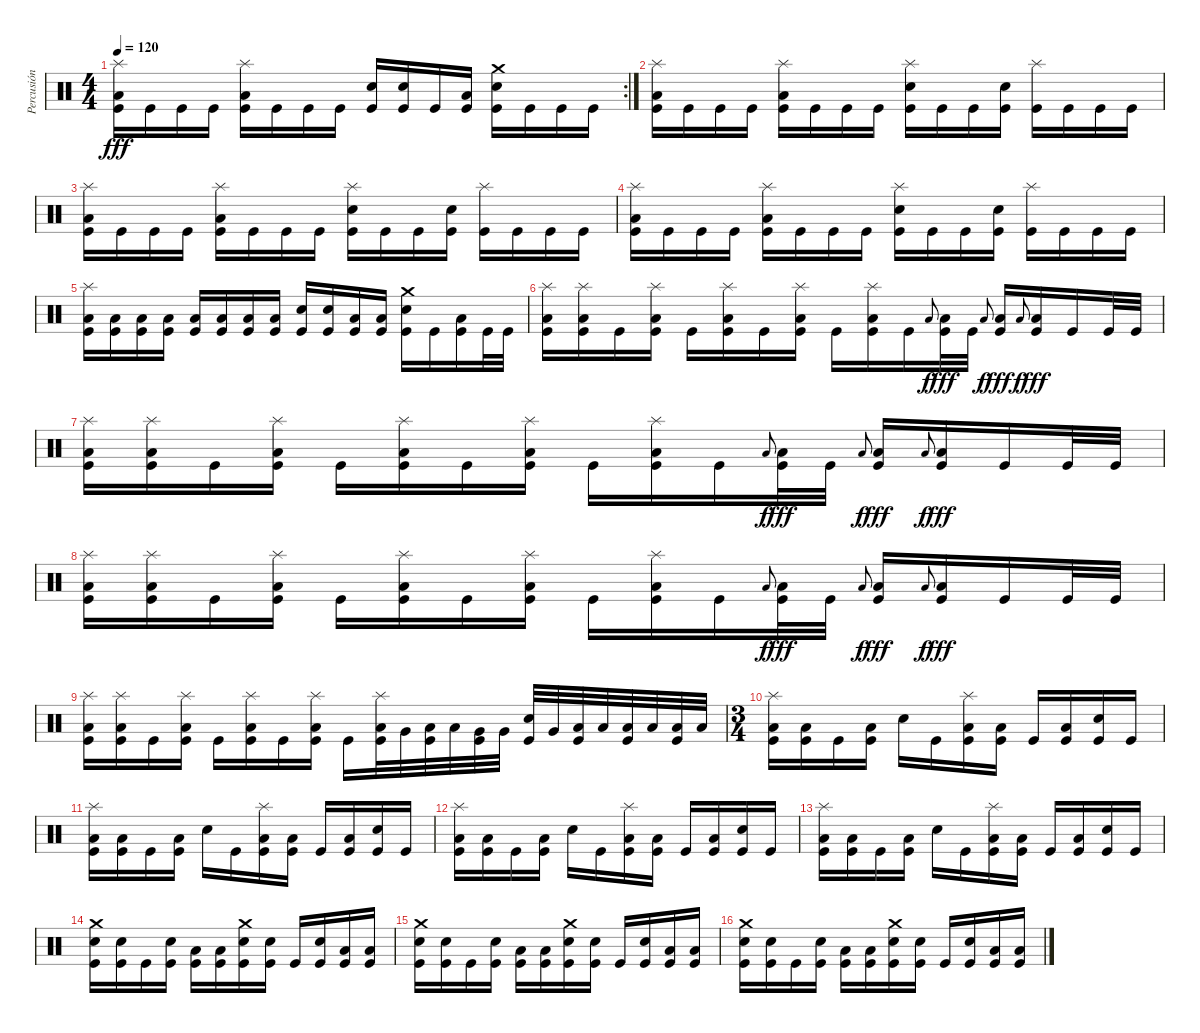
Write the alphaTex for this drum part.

\track ("Percusión" "Percusión") {instrument percussion}
\staff {score}
\articulation defaults
\rc 2
\ts (4 4)
\tempo 120
\clef neutral
\ks c
("Splash (hit)" "Low Floor Tom (hit)" "Kick (hit)").16{dy fff} "Kick (hit)".16 "Kick (hit)".16 "Kick (hit)".16 ("Splash (hit)" "Low Floor Tom (hit)" "Kick (hit)").16 "Kick (hit)".16 "Kick (hit)".16 "Kick (hit)".16 ("Snare (hit) 2" "Kick (hit)").16 ("Snare (hit) 2" "Kick (hit)").16 "Kick (hit)".16 ("Low Floor Tom (hit)" "Kick (hit)").16 ("Crash medium (hit)" "Snare (hit) 2" "Kick (hit)").16 "Kick (hit)".16 "Kick (hit)".16 "Kick (hit)".16 |
("Splash (hit)" "Low Floor Tom (hit)" "Kick (hit)").16 "Kick (hit)".16 "Kick (hit)".16 "Kick (hit)".16 ("Splash (hit)" "Low Floor Tom (hit)" "Kick (hit)").16 "Kick (hit)".16 "Kick (hit)".16 "Kick (hit)".16 ("Splash (hit)" "Snare (hit) 2" "Kick (hit)").16 "Kick (hit)".16 "Kick (hit)".16 ("Snare (hit) 2" "Kick (hit)").16 ("Splash (hit)" "Kick (hit)").16 "Kick (hit)".16 "Kick (hit)".16 "Kick (hit)".16 |
("Splash (hit)" "Low Floor Tom (hit)" "Kick (hit)").16 "Kick (hit)".16 "Kick (hit)".16 "Kick (hit)".16 ("Splash (hit)" "Low Floor Tom (hit)" "Kick (hit)").16 "Kick (hit)".16 "Kick (hit)".16 "Kick (hit)".16 ("Splash (hit)" "Snare (hit) 2" "Kick (hit)").16 "Kick (hit)".16 "Kick (hit)".16 ("Snare (hit) 2" "Kick (hit)").16 ("Splash (hit)" "Kick (hit)").16 "Kick (hit)".16 "Kick (hit)".16 "Kick (hit)".16 |
("Splash (hit)" "Low Floor Tom (hit)" "Kick (hit)").16 "Kick (hit)".16 "Kick (hit)".16 "Kick (hit)".16 ("Splash (hit)" "Low Floor Tom (hit)" "Kick (hit)").16 "Kick (hit)".16 "Kick (hit)".16 "Kick (hit)".16 ("Splash (hit)" "Snare (hit) 2" "Kick (hit)").16 "Kick (hit)".16 "Kick (hit)".16 ("Snare (hit) 2" "Kick (hit)").16 ("Splash (hit)" "Kick (hit)").16 "Kick (hit)".16 "Kick (hit)".16 "Kick (hit)".16 |
("Splash (hit)" "Low Floor Tom (hit)" "Kick (hit)").16 ("Low Floor Tom (hit)" "Kick (hit)").16 ("Low Floor Tom (hit)" "Kick (hit)").16 ("Low Floor Tom (hit)" "Kick (hit)").16 ("Low Floor Tom (hit)" "Kick (hit)").16 ("Low Floor Tom (hit)" "Kick (hit)").16 ("Low Floor Tom (hit)" "Kick (hit)").16 ("Low Floor Tom (hit)" "Kick (hit)").16 ("Snare (hit) 2" "Kick (hit)").16 ("Snare (hit) 2" "Kick (hit)").16 ("Low Floor Tom (hit)" "Kick (hit)").16 ("Low Floor Tom (hit)" "Kick (hit)").16 ("Crash medium (hit)" "Snare (hit) 2" "Kick (hit)").16 "Kick (hit)".16 ("Low Floor Tom (hit)" "Kick (hit)").16 "Kick (hit)".32 "Kick (hit)".32 |
("Splash (hit)" "Low Floor Tom (hit)" "Kick (hit)").16 ("Splash (hit)" "Low Floor Tom (hit)" "Kick (hit)").16 "Kick (hit)".16 ("Splash (hit)" "Low Floor Tom (hit)" "Kick (hit)").16 "Kick (hit)".16 ("Splash (hit)" "Low Floor Tom (hit)" "Kick (hit)").16 "Kick (hit)".16 ("Splash (hit)" "Low Floor Tom (hit)" "Kick (hit)").16 "Kick (hit)".16 ("Splash (hit)" "Low Floor Tom (hit)" "Kick (hit)").16 "Kick (hit)".16 "Low Floor Tom (hit)".8{gr onbeat dy f} ("Low Floor Tom (hit)" "Kick (hit)").32{dy fff} "Kick (hit)".32 "Low Floor Tom (hit)".8{gr onbeat dy f} ("Low Floor Tom (hit)" "Kick (hit)").16{dy fff} "Low Floor Tom (hit)".8{gr onbeat dy f} ("Low Floor Tom (hit)" "Kick (hit)").16{dy fff} "Kick (hit)".16 "Kick (hit)".32 "Kick (hit)".32 |
("Splash (hit)" "Low Floor Tom (hit)" "Kick (hit)").16 ("Splash (hit)" "Low Floor Tom (hit)" "Kick (hit)").16 "Kick (hit)".16 ("Splash (hit)" "Low Floor Tom (hit)" "Kick (hit)").16 "Kick (hit)".16 ("Splash (hit)" "Low Floor Tom (hit)" "Kick (hit)").16 "Kick (hit)".16 ("Splash (hit)" "Low Floor Tom (hit)" "Kick (hit)").16 "Kick (hit)".16 ("Splash (hit)" "Low Floor Tom (hit)" "Kick (hit)").16 "Kick (hit)".16 "Low Floor Tom (hit)".8{gr onbeat dy f} ("Low Floor Tom (hit)" "Kick (hit)").32{dy fff} "Kick (hit)".32 "Low Floor Tom (hit)".8{gr onbeat dy f} ("Low Floor Tom (hit)" "Kick (hit)").16{dy fff} "Low Floor Tom (hit)".8{gr onbeat dy f} ("Low Floor Tom (hit)" "Kick (hit)").16{dy fff} "Kick (hit)".16 "Kick (hit)".32 "Kick (hit)".32 |
("Splash (hit)" "Low Floor Tom (hit)" "Kick (hit)").16 ("Splash (hit)" "Low Floor Tom (hit)" "Kick (hit)").16 "Kick (hit)".16 ("Splash (hit)" "Low Floor Tom (hit)" "Kick (hit)").16 "Kick (hit)".16 ("Splash (hit)" "Low Floor Tom (hit)" "Kick (hit)").16 "Kick (hit)".16 ("Splash (hit)" "Low Floor Tom (hit)" "Kick (hit)").16 "Kick (hit)".16 ("Splash (hit)" "Low Floor Tom (hit)" "Kick (hit)").16 "Kick (hit)".16 "Low Floor Tom (hit)".8{gr onbeat dy f} ("Low Floor Tom (hit)" "Kick (hit)").32{dy fff} "Kick (hit)".32 "Low Floor Tom (hit)".8{gr onbeat dy f} ("Low Floor Tom (hit)" "Kick (hit)").16{dy fff} "Low Floor Tom (hit)".8{gr onbeat dy f} ("Low Floor Tom (hit)" "Kick (hit)").16{dy fff} "Kick (hit)".16 "Kick (hit)".32 "Kick (hit)".32 |
("Splash (hit)" "Low Floor Tom (hit)" "Kick (hit)").16 ("Splash (hit)" "Low Floor Tom (hit)" "Kick (hit)").16 "Kick (hit)".16 ("Splash (hit)" "Low Floor Tom (hit)" "Kick (hit)").16 "Kick (hit)".16 ("Splash (hit)" "Low Floor Tom (hit)" "Kick (hit)").16 "Kick (hit)".16 ("Splash (hit)" "Low Floor Tom (hit)" "Kick (hit)").16 "Kick (hit)".16 ("Splash (hit)" "Low Floor Tom (hit)" "Kick (hit)").32 "Very Low Tom (hit)".32 ("Low Floor Tom (hit)" "Kick (hit)").32 "Low Floor Tom (hit)".32 ("Very Low Tom (hit)" "Kick (hit)").32 "Very Low Tom (hit)".32 ("Snare (hit) 2" "Kick (hit)").32 "Very Low Tom (hit)".32 ("Low Floor Tom (hit)" "Kick (hit)").32 "Low Floor Tom (hit)".32 ("Low Floor Tom (hit)" "Kick (hit)").32 "Low Floor Tom (hit)".32 ("Low Floor Tom (hit)" "Kick (hit)").32 "Low Floor Tom (hit)".32 |
\ts (3 4)
("Splash (hit)" "Low Floor Tom (hit)" "Kick (hit)").16 ("Low Floor Tom (hit)" "Kick (hit)").16 "Kick (hit)".16 ("Low Floor Tom (hit)" "Kick (hit)").16 "Snare (hit) 2".16 "Kick (hit)".16 ("Splash (hit)" "Low Floor Tom (hit)" "Kick (hit)").16 ("Low Floor Tom (hit)" "Kick (hit)").16 "Kick (hit)".16 ("Low Floor Tom (hit)" "Kick (hit)").16 ("Snare (hit) 2" "Kick (hit)").16 "Kick (hit)".16 |
("Splash (hit)" "Low Floor Tom (hit)" "Kick (hit)").16 ("Low Floor Tom (hit)" "Kick (hit)").16 "Kick (hit)".16 ("Low Floor Tom (hit)" "Kick (hit)").16 "Snare (hit) 2".16 "Kick (hit)".16 ("Splash (hit)" "Low Floor Tom (hit)" "Kick (hit)").16 ("Low Floor Tom (hit)" "Kick (hit)").16 "Kick (hit)".16 ("Low Floor Tom (hit)" "Kick (hit)").16 ("Snare (hit) 2" "Kick (hit)").16 "Kick (hit)".16 |
("Splash (hit)" "Low Floor Tom (hit)" "Kick (hit)").16 ("Low Floor Tom (hit)" "Kick (hit)").16 "Kick (hit)".16 ("Low Floor Tom (hit)" "Kick (hit)").16 "Snare (hit) 2".16 "Kick (hit)".16 ("Splash (hit)" "Low Floor Tom (hit)" "Kick (hit)").16 ("Low Floor Tom (hit)" "Kick (hit)").16 "Kick (hit)".16 ("Low Floor Tom (hit)" "Kick (hit)").16 ("Snare (hit) 2" "Kick (hit)").16 "Kick (hit)".16 |
("Splash (hit)" "Low Floor Tom (hit)" "Kick (hit)").16 ("Low Floor Tom (hit)" "Kick (hit)").16 "Kick (hit)".16 ("Low Floor Tom (hit)" "Kick (hit)").16 "Snare (hit) 2".16 "Kick (hit)".16 ("Splash (hit)" "Low Floor Tom (hit)" "Kick (hit)").16 ("Low Floor Tom (hit)" "Kick (hit)").16 "Kick (hit)".16 ("Low Floor Tom (hit)" "Kick (hit)").16 ("Snare (hit) 2" "Kick (hit)").16 "Kick (hit)".16 |
("Crash medium (hit)" "Snare (hit) 2" "Kick (hit)").16 ("Snare (hit) 2" "Kick (hit)").16 "Kick (hit)".16 ("Snare (hit) 2" "Kick (hit)").16 ("Low Floor Tom (hit)" "Kick (hit)").16 ("Low Floor Tom (hit)" "Kick (hit)").16 ("Crash medium (hit)" "Snare (hit) 2" "Kick (hit)").16 ("Snare (hit) 2" "Kick (hit)").16 "Kick (hit)".16 ("Snare (hit) 2" "Kick (hit)").16 ("Low Floor Tom (hit)" "Kick (hit)").16 ("Low Floor Tom (hit)" "Kick (hit)").16 |
("Crash medium (hit)" "Snare (hit) 2" "Kick (hit)").16 ("Snare (hit) 2" "Kick (hit)").16 "Kick (hit)".16 ("Snare (hit) 2" "Kick (hit)").16 ("Low Floor Tom (hit)" "Kick (hit)").16 ("Low Floor Tom (hit)" "Kick (hit)").16 ("Crash medium (hit)" "Snare (hit) 2" "Kick (hit)").16 ("Snare (hit) 2" "Kick (hit)").16 "Kick (hit)".16 ("Snare (hit) 2" "Kick (hit)").16 ("Low Floor Tom (hit)" "Kick (hit)").16 ("Low Floor Tom (hit)" "Kick (hit)").16 |
("Crash medium (hit)" "Snare (hit) 2" "Kick (hit)").16 ("Snare (hit) 2" "Kick (hit)").16 "Kick (hit)".16 ("Snare (hit) 2" "Kick (hit)").16 ("Low Floor Tom (hit)" "Kick (hit)").16 ("Low Floor Tom (hit)" "Kick (hit)").16 ("Crash medium (hit)" "Snare (hit) 2" "Kick (hit)").16 ("Snare (hit) 2" "Kick (hit)").16 "Kick (hit)".16 ("Snare (hit) 2" "Kick (hit)").16 ("Low Floor Tom (hit)" "Kick (hit)").16 ("Low Floor Tom (hit)" "Kick (hit)").16
